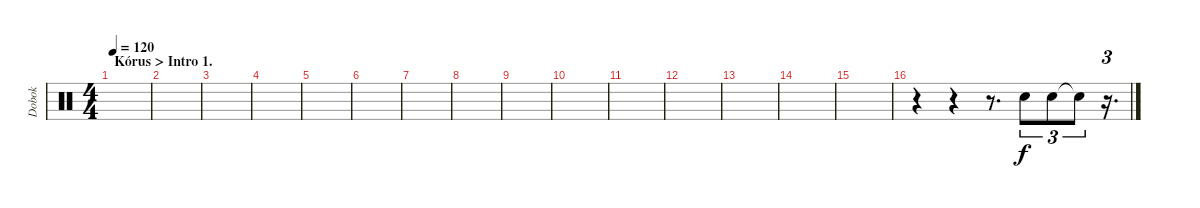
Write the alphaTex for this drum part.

\track ("Dobok" "Dobok") {instrument percussion}
\staff {score}
\articulation defaults
\ts (4 4)
\section ("" "Kórus > Intro 1.")
\tempo 120
\clef neutral
\ks c
|
|
|
|
|
|
|
|
|
|
|
|
|
|
|
r.4 r.4 r.8{d} "Snare (hit) 2".8{tu (3 2)} "Snare (hit) 2".8{tu (3 2)} "Snare (hit)"{t}.8{tu (3 2)} r.16{d tu (3 2)}
